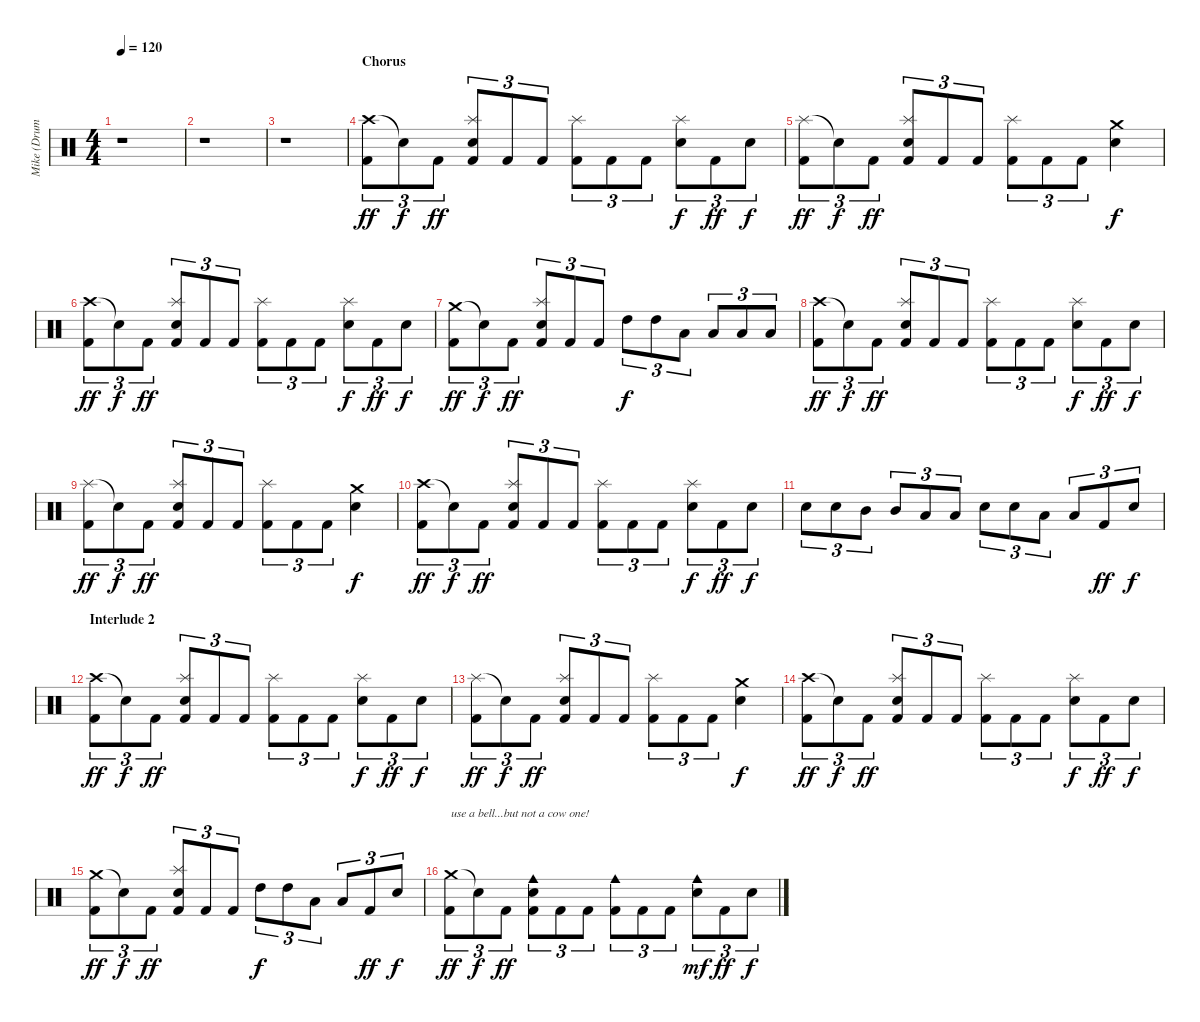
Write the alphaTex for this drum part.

\track ("Mike (Drums)" "Mike (Drum") {instrument percussion}
\staff {score}
\articulation defaults
\ts (4 4)
\tempo 120
\clef neutral
\ks c
r.1{dy ff} |
r.1 |
r.1 |
\section ("" "Chorus")
("Crash high (hit)" "Kick (hit) 2").8{tu (3 2)} "Snare (hit)"{t}.8{tu (3 2) dy f} "Kick (hit) 2".8{tu (3 2) dy ff} ("Splash (hit)" "Electric Snare (hit)" "Kick (hit) 2").8{tu (3 2)} "Kick (hit) 2".8{tu (3 2)} "Kick (hit) 2".8{tu (3 2)} ("Splash (hit)" "Kick (hit) 2").8{tu (3 2)} "Kick (hit) 2".8{tu (3 2)} "Kick (hit) 2".8{tu (3 2)} ("Splash (hit)" "Electric Snare (hit)").8{tu (3 2) dy f} "Kick (hit) 2".8{tu (3 2) dy ff} "Snare (hit) 2".8{tu (3 2) dy f} |
("Splash (hit)" "Kick (hit) 2").8{tu (3 2) dy ff} "Snare (hit)"{t}.8{tu (3 2) dy f} "Kick (hit) 2".8{tu (3 2) dy ff} ("Splash (hit)" "Electric Snare (hit)" "Kick (hit) 2").8{tu (3 2)} "Kick (hit) 2".8{tu (3 2)} "Kick (hit) 2".8{tu (3 2)} ("Splash (hit)" "Kick (hit) 2").8{tu (3 2)} "Kick (hit) 2".8{tu (3 2)} "Kick (hit) 2".8{tu (3 2)} ("Crash medium (hit)" "Electric Snare (hit)").4{dy f} |
("Crash high (hit)" "Kick (hit) 2").8{tu (3 2) dy ff} "Snare (hit)"{t}.8{tu (3 2) dy f} "Kick (hit) 2".8{tu (3 2) dy ff} ("Splash (hit)" "Electric Snare (hit)" "Kick (hit) 2").8{tu (3 2)} "Kick (hit) 2".8{tu (3 2)} "Kick (hit) 2".8{tu (3 2)} ("Splash (hit)" "Kick (hit) 2").8{tu (3 2)} "Kick (hit) 2".8{tu (3 2)} "Kick (hit) 2".8{tu (3 2)} ("Splash (hit)" "Electric Snare (hit)").8{tu (3 2) dy f} "Kick (hit) 2".8{tu (3 2) dy ff} "Snare (hit) 2".8{tu (3 2) dy f} |
("Crash medium (hit)" "Kick (hit) 2").8{tu (3 2) dy ff} "Snare (hit)"{t}.8{tu (3 2) dy f} "Kick (hit) 2".8{tu (3 2) dy ff} ("Splash (hit)" "Electric Snare (hit)" "Kick (hit) 2").8{tu (3 2)} "Kick (hit) 2".8{tu (3 2)} "Kick (hit) 2".8{tu (3 2)} "High Tom (hit)".8{tu (3 2) dy f} "High Tom (hit)".8{tu (3 2)} "Low Tom (hit)".8{tu (3 2)} "Low Tom (hit)".8{tu (3 2)} "Low Floor Tom (hit)".8{tu (3 2)} "Low Floor Tom (hit)".8{tu (3 2)} |
("Crash high (hit)" "Kick (hit) 2").8{tu (3 2) dy ff} "Snare (hit)"{t}.8{tu (3 2) dy f} "Kick (hit) 2".8{tu (3 2) dy ff} ("Splash (hit)" "Electric Snare (hit)" "Kick (hit) 2").8{tu (3 2)} "Kick (hit) 2".8{tu (3 2)} "Kick (hit) 2".8{tu (3 2)} ("Splash (hit)" "Kick (hit) 2").8{tu (3 2)} "Kick (hit) 2".8{tu (3 2)} "Kick (hit) 2".8{tu (3 2)} ("Splash (hit)" "Electric Snare (hit)").8{tu (3 2) dy f} "Kick (hit) 2".8{tu (3 2) dy ff} "Snare (hit) 2".8{tu (3 2) dy f} |
("Splash (hit)" "Kick (hit) 2").8{tu (3 2) dy ff} "Snare (hit)"{t}.8{tu (3 2) dy f} "Kick (hit) 2".8{tu (3 2) dy ff} ("Splash (hit)" "Electric Snare (hit)" "Kick (hit) 2").8{tu (3 2)} "Kick (hit) 2".8{tu (3 2)} "Kick (hit) 2".8{tu (3 2)} ("Splash (hit)" "Kick (hit) 2").8{tu (3 2)} "Kick (hit) 2".8{tu (3 2)} "Kick (hit) 2".8{tu (3 2)} ("Crash medium (hit)" "Electric Snare (hit)").4{dy f} |
("Crash high (hit)" "Kick (hit) 2").8{tu (3 2) dy ff} "Snare (hit)"{t}.8{tu (3 2) dy f} "Kick (hit) 2".8{tu (3 2) dy ff} ("Splash (hit)" "Electric Snare (hit)" "Kick (hit) 2").8{tu (3 2)} "Kick (hit) 2".8{tu (3 2)} "Kick (hit) 2".8{tu (3 2)} ("Splash (hit)" "Kick (hit) 2").8{tu (3 2)} "Kick (hit) 2".8{tu (3 2)} "Kick (hit) 2".8{tu (3 2)} ("Splash (hit)" "Electric Snare (hit)").8{tu (3 2) dy f} "Kick (hit) 2".8{tu (3 2) dy ff} "Snare (hit) 2".8{tu (3 2) dy f} |
"Electric Snare (hit)".8{tu (3 2)} "Electric Snare (hit)".8{tu (3 2)} "Mid Tom (hit)".8{tu (3 2)} "Mid Tom (hit)".8{tu (3 2)} "Low Tom (hit)".8{tu (3 2)} "Low Tom (hit)".8{tu (3 2)} "Electric Snare (hit)".8{tu (3 2)} "Electric Snare (hit)".8{tu (3 2)} "Low Tom (hit)".8{tu (3 2)} "Low Tom (hit)".8{tu (3 2)} "Kick (hit) 2".8{tu (3 2) dy ff} "Snare (hit) 2".8{tu (3 2) dy f} |
\section ("" "Interlude 2")
("Crash high (hit)" "Kick (hit) 2").8{tu (3 2) dy ff} "Snare (hit)"{t}.8{tu (3 2) dy f} "Kick (hit) 2".8{tu (3 2) dy ff} ("Splash (hit)" "Electric Snare (hit)" "Kick (hit) 2").8{tu (3 2)} "Kick (hit) 2".8{tu (3 2)} "Kick (hit) 2".8{tu (3 2)} ("Splash (hit)" "Kick (hit) 2").8{tu (3 2)} "Kick (hit) 2".8{tu (3 2)} "Kick (hit) 2".8{tu (3 2)} ("Splash (hit)" "Electric Snare (hit)").8{tu (3 2) dy f} "Kick (hit) 2".8{tu (3 2) dy ff} "Snare (hit) 2".8{tu (3 2) dy f} |
("Splash (hit)" "Kick (hit) 2").8{tu (3 2) dy ff} "Snare (hit)"{t}.8{tu (3 2) dy f} "Kick (hit) 2".8{tu (3 2) dy ff} ("Splash (hit)" "Electric Snare (hit)" "Kick (hit) 2").8{tu (3 2)} "Kick (hit) 2".8{tu (3 2)} "Kick (hit) 2".8{tu (3 2)} ("Splash (hit)" "Kick (hit) 2").8{tu (3 2)} "Kick (hit) 2".8{tu (3 2)} "Kick (hit) 2".8{tu (3 2)} ("Crash medium (hit)" "Electric Snare (hit)").4{dy f} |
("Crash high (hit)" "Kick (hit) 2").8{tu (3 2) dy ff} "Snare (hit)"{t}.8{tu (3 2) dy f} "Kick (hit) 2".8{tu (3 2) dy ff} ("Splash (hit)" "Electric Snare (hit)" "Kick (hit) 2").8{tu (3 2)} "Kick (hit) 2".8{tu (3 2)} "Kick (hit) 2".8{tu (3 2)} ("Splash (hit)" "Kick (hit) 2").8{tu (3 2)} "Kick (hit) 2".8{tu (3 2)} "Kick (hit) 2".8{tu (3 2)} ("Splash (hit)" "Electric Snare (hit)").8{tu (3 2) dy f} "Kick (hit) 2".8{tu (3 2) dy ff} "Snare (hit) 2".8{tu (3 2) dy f} |
("Crash medium (hit)" "Kick (hit) 2").8{tu (3 2) dy ff} "Snare (hit)"{t}.8{tu (3 2) dy f} "Kick (hit) 2".8{tu (3 2) dy ff} ("Splash (hit)" "Electric Snare (hit)" "Kick (hit) 2").8{tu (3 2)} "Kick (hit) 2".8{tu (3 2)} "Kick (hit) 2".8{tu (3 2)} "High Tom (hit)".8{tu (3 2) dy f} "High Tom (hit)".8{tu (3 2)} "Low Tom (hit)".8{tu (3 2)} "Low Tom (hit)".8{tu (3 2)} "Kick (hit) 2".8{tu (3 2) dy ff} "Snare (hit) 2".8{tu (3 2) dy f} |
("Crash medium (hit)" "Kick (hit) 2").8{tu (3 2) txt "use a bell...but not a cow one!" dy ff} "Snare (hit)"{t}.8{tu (3 2) dy f} "Kick (hit) 2".8{tu (3 2) dy ff} ("Cowbell medium (hit)" "Electric Snare (hit)" "Kick (hit) 2").8{tu (3 2)} "Kick (hit) 2".8{tu (3 2)} "Kick (hit) 2".8{tu (3 2)} ("Cowbell medium (hit)" "Kick (hit) 2").8{tu (3 2)} "Kick (hit) 2".8{tu (3 2)} "Kick (hit) 2".8{tu (3 2)} ("Cowbell medium (hit)" "Electric Snare (hit)").8{tu (3 2) dy mf} "Kick (hit) 2".8{tu (3 2) dy ff} "Snare (hit) 2".8{tu (3 2) dy f}
